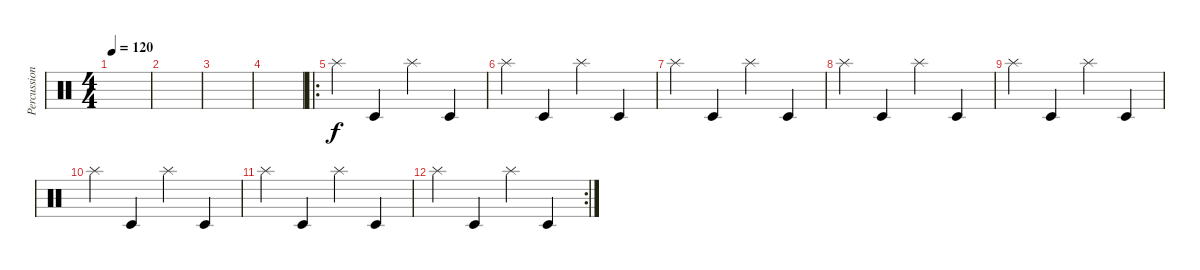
\track ("Percussions" "Percussion") {instrument percussion}
\staff {score}
\articulation defaults
\ts (4 4)
\tempo 120
\clef neutral
\ks c
|
|
|
|
\ro "Splash (hit)".4 "Timbale low (hit)".4 "Splash (hit)".4 "Timbale low (hit)".4
|
"Splash (hit)".4 "Timbale low (hit)".4 "Splash (hit)".4 "Timbale low (hit)".4 |
"Splash (hit)".4 "Timbale low (hit)".4 "Splash (hit)".4 "Timbale low (hit)".4 |
"Splash (hit)".4 "Timbale low (hit)".4 "Splash (hit)".4 "Timbale low (hit)".4 |
"Splash (hit)".4 "Timbale low (hit)".4 "Splash (hit)".4 "Timbale low (hit)".4 |
"Splash (hit)".4 "Timbale low (hit)".4 "Splash (hit)".4 "Timbale low (hit)".4 |
"Splash (hit)".4 "Timbale low (hit)".4 "Splash (hit)".4 "Timbale low (hit)".4 |
\rc 2 "Splash (hit)".4 "Timbale low (hit)".4 "Splash (hit)".4 "Timbale low (hit)".4
